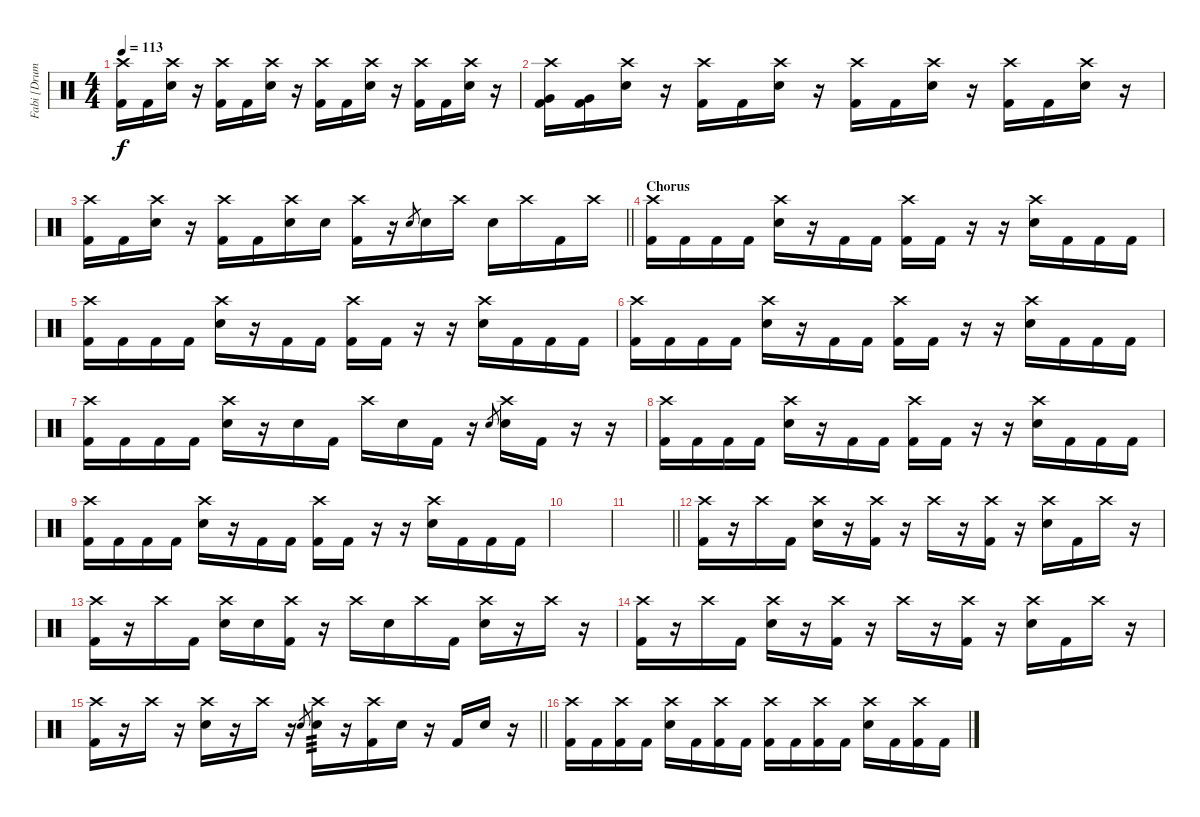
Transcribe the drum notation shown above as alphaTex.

\track ("Fabi [Drums]" "Fabi [Drum") {instrument percussion}
\staff {score}
\articulation defaults
\ts (4 4)
\tempo 113
\clef neutral
\ks c
("Crash high (hit)" "Kick (hit) 2").16{dy f} "Kick (hit) 2".16 ("Crash high (hit)" "Electric Snare (hit)").16 r.16 ("Crash high (hit)" "Kick (hit) 2").16 "Kick (hit) 2".16 ("Crash high (hit)" "Electric Snare (hit)").16 r.16 ("Crash high (hit)" "Kick (hit) 2").16 "Kick (hit) 2".16 ("Crash high (hit)" "Electric Snare (hit)").16 r.16 ("Crash high (hit)" "Kick (hit) 2").16 "Kick (hit) 2".16 ("Crash high (hit)" "Electric Snare (hit)").16 r.16 |
("Crash high (hit)" "Very Low Tom (hit)" "Kick (hit) 2").16 ("Very Low Tom (hit)" "Kick (hit) 2").16 ("Crash high (hit)" "Electric Snare (hit)").16 r.16 ("Crash high (hit)" "Kick (hit) 2").16 "Kick (hit) 2".16 ("Crash high (hit)" "Electric Snare (hit)").16 r.16 ("Crash high (hit)" "Kick (hit) 2").16 "Kick (hit) 2".16 ("Crash high (hit)" "Electric Snare (hit)").16 r.16 ("Crash high (hit)" "Kick (hit) 2").16 "Kick (hit) 2".16 ("Crash high (hit)" "Electric Snare (hit)").16 r.16 |
\barLineRight lightlight
("Crash high (hit)" "Kick (hit) 2").16 "Kick (hit) 2".16 ("Crash high (hit)" "Electric Snare (hit)").16 r.16 ("Crash high (hit)" "Kick (hit) 2").16 "Kick (hit) 2".16 ("Crash high (hit)" "Electric Snare (hit)").16 "Electric Snare (hit)".16 ("Crash high (hit)" "Kick (hit) 2").16 r.16 "Electric Snare (hit)".8{gr} "Electric Snare (hit)".16 "Crash high (hit)".16 "Electric Snare (hit)".16 "Crash high (hit)".16 "Kick (hit) 2".16 "Crash high (hit)".16 |
\section ("" "Chorus")
("Crash high (hit)" "Kick (hit) 2").16 "Kick (hit) 2".16 "Kick (hit) 2".16 "Kick (hit) 2".16 ("Crash high (hit)" "Electric Snare (hit)").16 r.16 "Kick (hit) 2".16 "Kick (hit) 2".16 ("Crash high (hit)" "Kick (hit) 2").16 "Kick (hit) 2".16 r.16 r.16 ("Crash high (hit)" "Electric Snare (hit)").16 "Kick (hit) 2".16 "Kick (hit) 2".16 "Kick (hit) 2".16 |
("Crash high (hit)" "Kick (hit) 2").16 "Kick (hit) 2".16 "Kick (hit) 2".16 "Kick (hit) 2".16 ("Crash high (hit)" "Electric Snare (hit)").16 r.16 "Kick (hit) 2".16 "Kick (hit) 2".16 ("Crash high (hit)" "Kick (hit) 2").16 "Kick (hit) 2".16 r.16 r.16 ("Crash high (hit)" "Electric Snare (hit)").16 "Kick (hit) 2".16 "Kick (hit) 2".16 "Kick (hit) 2".16 |
("Crash high (hit)" "Kick (hit) 2").16 "Kick (hit) 2".16 "Kick (hit) 2".16 "Kick (hit) 2".16 ("Crash high (hit)" "Electric Snare (hit)").16 r.16 "Kick (hit) 2".16 "Kick (hit) 2".16 ("Crash high (hit)" "Kick (hit) 2").16 "Kick (hit) 2".16 r.16 r.16 ("Crash high (hit)" "Electric Snare (hit)").16 "Kick (hit) 2".16 "Kick (hit) 2".16 "Kick (hit) 2".16 |
("Crash high (hit)" "Kick (hit) 2").16 "Kick (hit) 2".16 "Kick (hit) 2".16 "Kick (hit) 2".16 ("Crash high (hit)" "Electric Snare (hit)").16 r.16 "Electric Snare (hit)".16 "Kick (hit) 2".16 "Crash high (hit)".16 "Electric Snare (hit)".16 "Kick (hit) 2".16 r.16 "Electric Snare (hit)".8{gr} ("Crash high (hit)" "Electric Snare (hit)").16 "Kick (hit) 2".16 r.16 r.16 |
("Crash high (hit)" "Kick (hit) 2").16 "Kick (hit) 2".16 "Kick (hit) 2".16 "Kick (hit) 2".16 ("Crash high (hit)" "Electric Snare (hit)").16 r.16 "Kick (hit) 2".16 "Kick (hit) 2".16 ("Crash high (hit)" "Kick (hit) 2").16 "Kick (hit) 2".16 r.16 r.16 ("Crash high (hit)" "Electric Snare (hit)").16 "Kick (hit) 2".16 "Kick (hit) 2".16 "Kick (hit) 2".16 |
("Crash high (hit)" "Kick (hit) 2").16 "Kick (hit) 2".16 "Kick (hit) 2".16 "Kick (hit) 2".16 ("Crash high (hit)" "Electric Snare (hit)").16 r.16 "Kick (hit) 2".16 "Kick (hit) 2".16 ("Crash high (hit)" "Kick (hit) 2").16 "Kick (hit) 2".16 r.16 r.16 ("Crash high (hit)" "Electric Snare (hit)").16 "Kick (hit) 2".16 "Kick (hit) 2".16 "Kick (hit) 2".16 |
|
\barLineRight lightlight
|
("Crash high (hit)" "Kick (hit) 2").16 r.16 "Crash high (hit)".16 "Kick (hit) 2".16 ("Crash high (hit)" "Electric Snare (hit)").16 r.16 ("Crash high (hit)" "Kick (hit) 2").16 r.16 "Crash high (hit)".16 r.16 ("Crash high (hit)" "Kick (hit) 2").16 r.16 ("Crash high (hit)" "Electric Snare (hit)").16 "Kick (hit) 2".16 "Crash high (hit)".16 r.16 |
("Crash high (hit)" "Kick (hit) 2").16 r.16 "Crash high (hit)".16 "Kick (hit) 2".16 ("Crash high (hit)" "Electric Snare (hit)").16 "Electric Snare (hit)".16 ("Crash high (hit)" "Kick (hit) 2").16 r.16 "Crash high (hit)".16 "Electric Snare (hit)".16 "Crash high (hit)".16 "Kick (hit) 2".16 ("Crash high (hit)" "Electric Snare (hit)").16 r.16 "Crash high (hit)".16 r.16 |
("Crash high (hit)" "Kick (hit) 2").16 r.16 "Crash high (hit)".16 "Kick (hit) 2".16 ("Crash high (hit)" "Electric Snare (hit)").16 r.16 ("Crash high (hit)" "Kick (hit) 2").16 r.16 "Crash high (hit)".16 r.16 ("Crash high (hit)" "Kick (hit) 2").16 r.16 ("Crash high (hit)" "Electric Snare (hit)").16 "Kick (hit) 2".16 "Crash high (hit)".16 r.16 |
\barLineRight lightlight
("Crash high (hit)" "Kick (hit) 2").16 r.16 "Crash high (hit)".16 r.16 ("Crash high (hit)" "Electric Snare (hit)").16 r.16 "Crash high (hit)".16 r.16 "Electric Snare (hit)".8{gr} ("Crash high (hit)" "Electric Snare (hit)").16{tp 3} r.16 ("Crash high (hit)" "Kick (hit) 2").16 "Electric Snare (hit)".16 r.16 "Kick (hit) 2".16 "Electric Snare (hit)".16 r.16 |
("Crash high (hit)" "Kick (hit) 2").16 "Kick (hit) 2".16 ("Crash high (hit)" "Kick (hit) 2").16 "Kick (hit) 2".16 ("Crash high (hit)" "Electric Snare (hit)").16 "Kick (hit) 2".16 ("Crash high (hit)" "Kick (hit) 2").16 "Kick (hit) 2".16 ("Crash high (hit)" "Kick (hit) 2").16 "Kick (hit) 2".16 ("Crash high (hit)" "Kick (hit) 2").16 "Kick (hit) 2".16 ("Crash high (hit)" "Electric Snare (hit)").16 "Kick (hit) 2".16 ("Crash high (hit)" "Kick (hit) 2").16 "Kick (hit) 2".16
